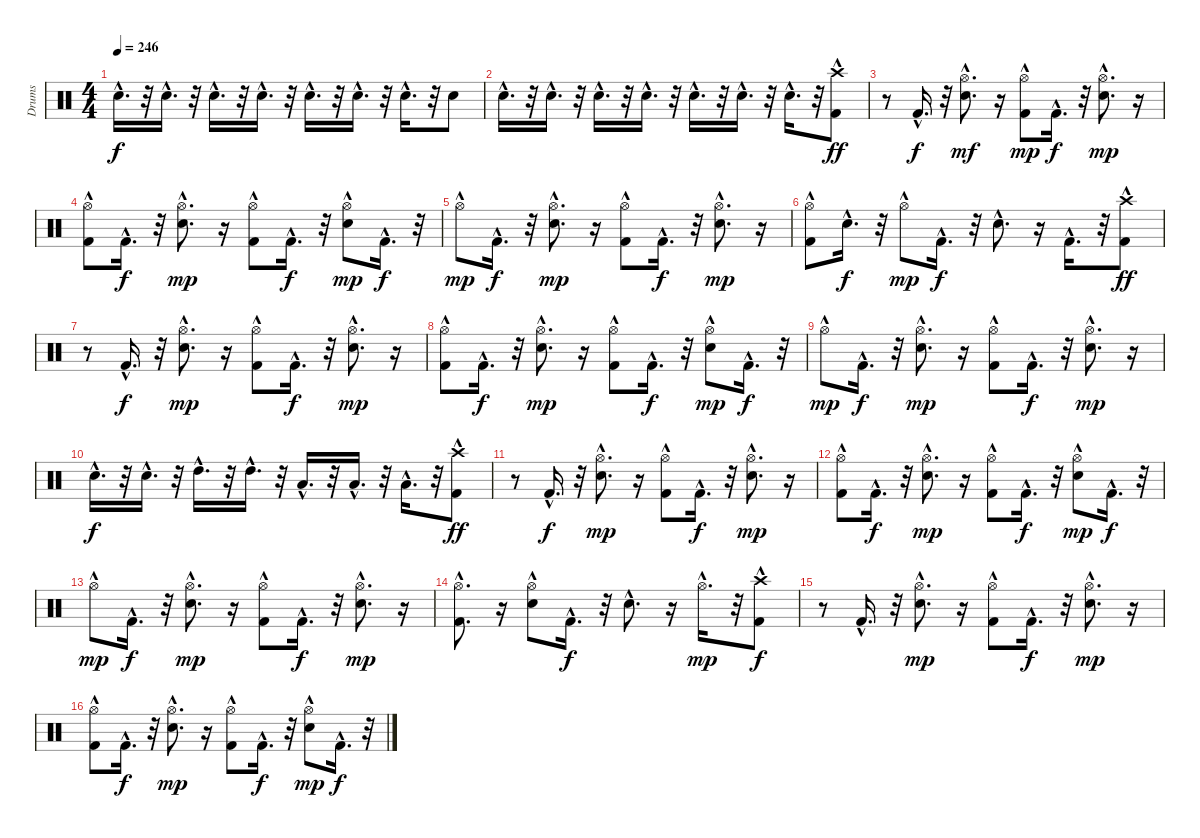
\track ("Drums" "Drums") {instrument percussion}
\staff {score}
\articulation defaults
\ts (4 4)
\tempo 246
\clef neutral
\ks c "Electric Snare (hit)"{hac}.16{d dy f}
r.32 "Electric Snare (hit)"{hac}.16{d} r.32 "Electric Snare (hit)"{hac}.16{d} r.32 "Electric Snare (hit)"{hac}.16{d} r.32 "Electric Snare (hit)"{hac}.16{d} r.32 "Electric Snare (hit)"{hac}.16{d} r.32 "Electric Snare (hit)"{hac}.16{d} r.32 "Electric Snare (hit)".8 |
"Electric Snare (hit)"{hac}.16{d} r.32 "Electric Snare (hit)"{hac}.16{d} r.32 "Electric Snare (hit)"{hac}.16{d} r.32 "Electric Snare (hit)"{hac}.16{d} r.32 "Electric Snare (hit)"{hac}.16{d} r.32 "Electric Snare (hit)"{hac}.16{d} r.32 "Electric Snare (hit)"{hac}.16{d} r.32 ("Kick (hit) 2"{hac} "Crash high (hit)").8{dy ff} |
r.8 "Kick (hit) 2"{hac}.16{d dy f} r.32 ("Hi-Hat (open)"{hac} "Electric Snare (hit)"{hac}).8{d dy mf} r.16 ("Kick (hit) 2"{hac} "Hi-Hat (open)"{hac}).8{dy mp} "Kick (hit) 2"{hac}.16{d dy f} r.32 ("Hi-Hat (open)"{hac} "Electric Snare (hit)"{hac}).8{d dy mp} r.16 |
("Kick (hit) 2"{hac} "Hi-Hat (open)"{hac}).8 "Kick (hit) 2"{hac}.16{d dy f} r.32 ("Hi-Hat (open)"{hac} "Electric Snare (hit)"{hac}).8{d dy mp} r.16 ("Kick (hit) 2"{hac} "Hi-Hat (open)"{hac}).8 "Kick (hit) 2"{hac}.16{d dy f} r.32 ("Hi-Hat (open)"{hac} "Electric Snare (hit)"{hac}).8{dy mp} "Kick (hit) 2"{hac}.16{d dy f} r.32 |
"Hi-Hat (open)"{hac}.8{dy mp} "Kick (hit) 2"{hac}.16{d dy f} r.32 ("Hi-Hat (open)"{hac} "Electric Snare (hit)"{hac}).8{d dy mp} r.16 ("Kick (hit) 2"{hac} "Hi-Hat (open)"{hac}).8 "Kick (hit) 2"{hac}.16{d dy f} r.32 ("Hi-Hat (open)"{hac} "Electric Snare (hit)"{hac}).8{d dy mp} r.16 |
("Kick (hit) 2"{hac} "Hi-Hat (open)"{hac}).8 "Electric Snare (hit)"{hac}.16{d dy f} r.32 "Hi-Hat (open)"{hac}.8{dy mp} "Kick (hit) 2"{hac}.16{d dy f} r.32 "Electric Snare (hit)"{hac}.8{d} r.16 "Kick (hit) 2"{hac}.16{d} r.32 ("Kick (hit) 2"{hac} "Crash high (hit)").8{dy ff} |
r.8 "Kick (hit) 2"{hac}.16{d dy f} r.32 ("Hi-Hat (open)"{hac} "Electric Snare (hit)"{hac}).8{d dy mp} r.16 ("Kick (hit) 2"{hac} "Hi-Hat (open)"{hac}).8 "Kick (hit) 2"{hac}.16{d dy f} r.32 ("Hi-Hat (open)"{hac} "Electric Snare (hit)"{hac}).8{d dy mp} r.16 |
("Kick (hit) 2"{hac} "Hi-Hat (open)"{hac}).8 "Kick (hit) 2"{hac}.16{d dy f} r.32 ("Hi-Hat (open)"{hac} "Electric Snare (hit)"{hac}).8{d dy mp} r.16 ("Kick (hit) 2"{hac} "Hi-Hat (open)"{hac}).8 "Kick (hit) 2"{hac}.16{d dy f} r.32 ("Hi-Hat (open)"{hac} "Electric Snare (hit)"{hac}).8{dy mp} "Kick (hit) 2"{hac}.16{d dy f} r.32 |
"Hi-Hat (open)"{hac}.8{dy mp} "Kick (hit) 2"{hac}.16{d dy f} r.32 ("Hi-Hat (open)"{hac} "Electric Snare (hit)"{hac}).8{d dy mp} r.16 ("Kick (hit) 2"{hac} "Hi-Hat (open)"{hac}).8 "Kick (hit) 2"{hac}.16{d dy f} r.32 ("Hi-Hat (open)"{hac} "Electric Snare (hit)"{hac}).8{d dy mp} r.16 |
"Electric Snare (hit)"{hac}.16{d dy f} r.32 "Electric Snare (hit)"{hac}.16{d} r.32 "High Tom (hit)"{hac}.16{d} r.32 "High Tom (hit)"{hac}.16{d} r.32 "Low Tom (hit)"{hac}.16{d} r.32 "Low Tom (hit)"{hac}.16{d} r.32 "Low Tom (hit)"{hac}.16{d} r.32 ("Kick (hit) 2"{hac} "Crash high (hit)").8{dy ff} |
r.8 "Kick (hit) 2"{hac}.16{d dy f} r.32 ("Hi-Hat (open)"{hac} "Electric Snare (hit)"{hac}).8{d dy mp} r.16 ("Kick (hit) 2"{hac} "Hi-Hat (open)"{hac}).8 "Kick (hit) 2"{hac}.16{d dy f} r.32 ("Hi-Hat (open)"{hac} "Electric Snare (hit)"{hac}).8{d dy mp} r.16 |
("Kick (hit) 2"{hac} "Hi-Hat (open)"{hac}).8 "Kick (hit) 2"{hac}.16{d dy f} r.32 ("Hi-Hat (open)"{hac} "Electric Snare (hit)"{hac}).8{d dy mp} r.16 ("Kick (hit) 2"{hac} "Hi-Hat (open)"{hac}).8 "Kick (hit) 2"{hac}.16{d dy f} r.32 ("Hi-Hat (open)"{hac} "Electric Snare (hit)"{hac}).8{dy mp} "Kick (hit) 2"{hac}.16{d dy f} r.32 |
"Hi-Hat (open)"{hac}.8{dy mp} "Kick (hit) 2"{hac}.16{d dy f} r.32 ("Hi-Hat (open)"{hac} "Electric Snare (hit)"{hac}).8{d dy mp} r.16 ("Kick (hit) 2"{hac} "Hi-Hat (open)"{hac}).8 "Kick (hit) 2"{hac}.16{d dy f} r.32 ("Hi-Hat (open)"{hac} "Electric Snare (hit)"{hac}).8{d dy mp} r.16 |
("Kick (hit) 2"{hac} "Hi-Hat (open)"{hac}).8{d} r.16 ("Hi-Hat (open)"{hac} "Electric Snare (hit)"{hac}).8 "Kick (hit) 2"{hac}.16{d dy f} r.32 "Electric Snare (hit)"{hac}.8{d} r.16 "Hi-Hat (open)"{hac}.16{d dy mp} r.32 ("Kick (hit) 2"{hac} "Crash high (hit)").8{dy f} |
r.8 "Kick (hit) 2"{hac}.16{d} r.32 ("Hi-Hat (open)"{hac} "Electric Snare (hit)"{hac}).8{d dy mp} r.16 ("Kick (hit) 2"{hac} "Hi-Hat (open)"{hac}).8 "Kick (hit) 2"{hac}.16{d dy f} r.32 ("Hi-Hat (open)"{hac} "Electric Snare (hit)"{hac}).8{d dy mp} r.16 |
("Kick (hit) 2"{hac} "Hi-Hat (open)"{hac}).8 "Kick (hit) 2"{hac}.16{d dy f} r.32 ("Hi-Hat (open)"{hac} "Electric Snare (hit)"{hac}).8{d dy mp} r.16 ("Kick (hit) 2"{hac} "Hi-Hat (open)"{hac}).8 "Kick (hit) 2"{hac}.16{d dy f} r.32 ("Hi-Hat (open)"{hac} "Electric Snare (hit)"{hac}).8{dy mp} "Kick (hit) 2"{hac}.16{d dy f} r.32
